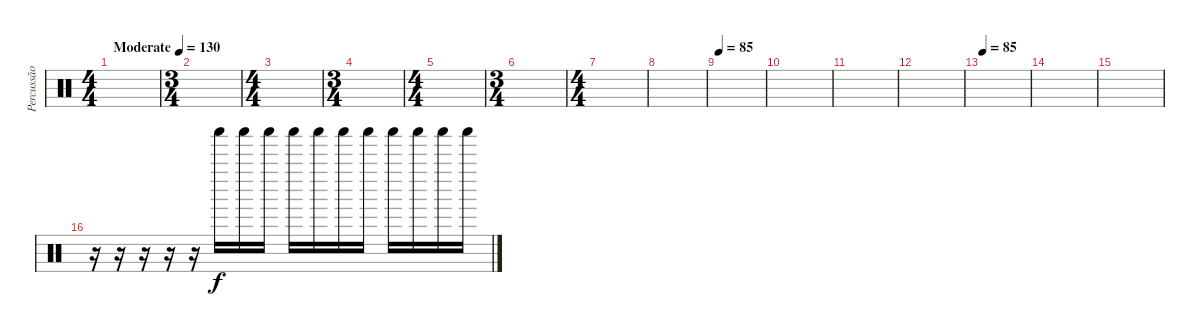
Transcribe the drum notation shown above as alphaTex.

\track ("Percussão" "Percussão") {instrument percussion}
\staff {score}
\articulation defaults
\ts (4 4)
\tempo (130 "Moderate")
\clef neutral
\ks c
|
\ts (3 4)
|
\ts (4 4)
|
\ts (3 4)
|
\ts (4 4)
|
\ts (3 4)
|
\ts (4 4)
|
|
\tempo 85
|
|
|
|
\tempo 85
|
|
|
r.16 r.16 r.16 r.16 r.16 "Shaker (hit)".16 "Shaker (hit)".16 "Shaker (hit)".16 "Shaker (hit)".16 "Shaker (hit)".16 "Shaker (hit)".16 "Shaker (hit)".16 "Shaker (hit)".16 "Shaker (hit)".16 "Shaker (hit)".16 "Shaker (hit)".16
